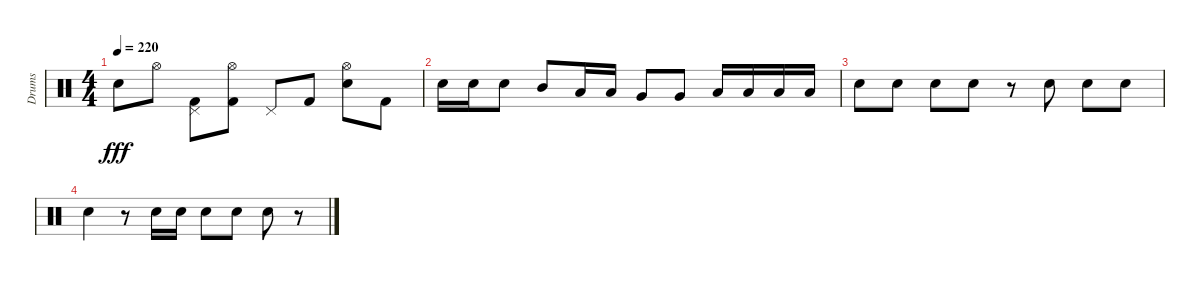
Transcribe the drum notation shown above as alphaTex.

\track ("Drums" "Drums") {instrument percussion}
\staff {score}
\articulation defaults
\ts (4 4)
\tempo 220
\clef neutral
\ks aminor "Snare (hit) 2".8{dy fff} "Hi-Hat (open)".8
("Kick (hit) 2" "Pedal Hi-Hat (hit)").8 ("Kick (hit) 2" "Hi-Hat (open)").8 "Pedal Hi-Hat (hit)".8 "Kick (hit) 2".8 ("Snare (hit) 2" "Hi-Hat (open)").8 "Kick (hit) 2".8 |
"Snare (hit) 2".16 "Snare (hit) 2".16 "Snare (hit) 2".8 "Mid Tom (hit)".8 "Low Tom (hit)".16 "Low Tom (hit)".16 "Very Low Tom (hit)".8 "Very Low Tom (hit)".8 "Low Floor Tom (hit)".16 "Low Floor Tom (hit)".16 "Low Floor Tom (hit)".16 "Low Floor Tom (hit)".16 |
"Snare (hit) 2".8 "Snare (hit) 2".8 "Snare (hit) 2".8 "Snare (hit) 2".8 r.8 "Snare (hit) 2".8 "Snare (hit) 2".8 "Snare (hit) 2".8 |
"Snare (hit) 2".4 r.8 "Snare (hit) 2".16 "Snare (hit) 2".16 "Snare (hit) 2".8 "Snare (hit) 2".8 "Snare (hit) 2".8 r.8
